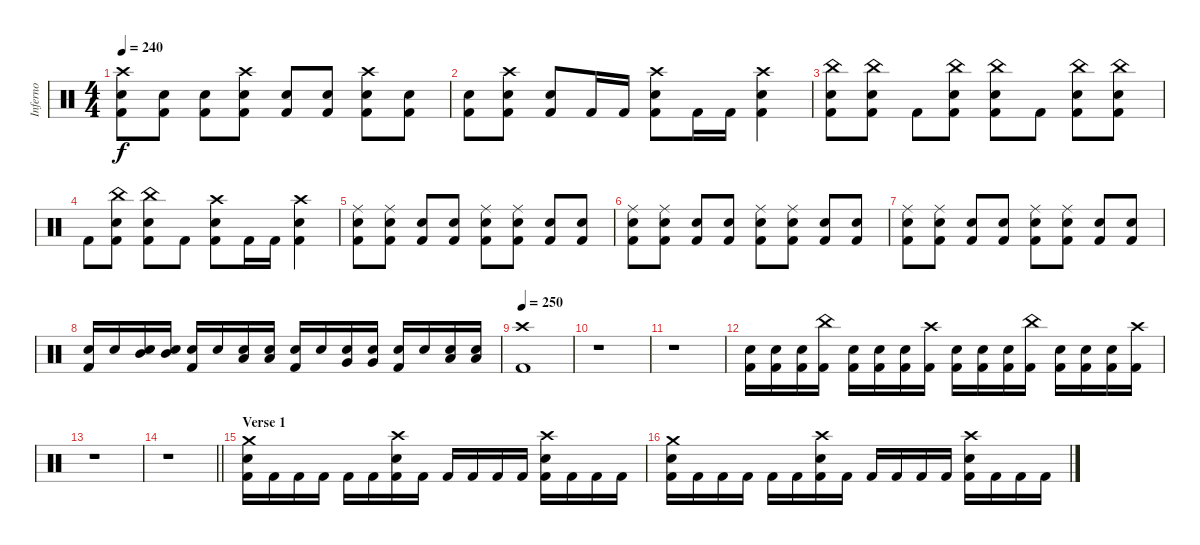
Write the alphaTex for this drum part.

\track ("Inferno" "Inferno") {instrument percussion}
\staff {score}
\articulation defaults
\ts (4 4)
\tempo 240
\clef neutral
\ks c
("Crash high (hit)" "Electric Snare (hit)" "Kick (hit) 2").8{dy f} ("Electric Snare (hit)" "Kick (hit) 2").8 ("Electric Snare (hit)" "Kick (hit) 2").8 ("Crash high (hit)" "Electric Snare (hit)" "Kick (hit) 2").8 ("Electric Snare (hit)" "Kick (hit) 2").8 ("Electric Snare (hit)" "Kick (hit) 2").8 ("Crash high (hit)" "Electric Snare (hit)" "Kick (hit) 2").8 ("Electric Snare (hit)" "Kick (hit) 2").8 |
("Electric Snare (hit)" "Kick (hit) 2").8 ("Crash high (hit)" "Electric Snare (hit)" "Kick (hit) 2").8 ("Electric Snare (hit)" "Kick (hit) 2").8 "Kick (hit) 2".16 "Kick (hit) 2".16 ("Crash high (hit)" "Electric Snare (hit)" "Kick (hit) 2").8 "Kick (hit) 2".16 "Kick (hit) 2".16 ("Crash high (hit)" "Electric Snare (hit)" "Kick (hit) 2").4 |
("China (hit)" "Electric Snare (hit)" "Kick (hit) 2").8 ("China (hit)" "Electric Snare (hit)" "Kick (hit) 2").8 "Kick (hit) 2".8 ("China (hit)" "Electric Snare (hit)" "Kick (hit) 2").8 ("China (hit)" "Electric Snare (hit)" "Kick (hit) 2").8 "Kick (hit) 2".8 ("China (hit)" "Electric Snare (hit)" "Kick (hit) 2").8 ("China (hit)" "Electric Snare (hit)" "Kick (hit) 2").8 |
"Kick (hit) 2".8 ("China (hit)" "Electric Snare (hit)" "Kick (hit) 2").8 ("China (hit)" "Electric Snare (hit)" "Kick (hit) 2").8 "Kick (hit) 2".8 ("Crash high (hit)" "Electric Snare (hit)" "Kick (hit) 2").8 "Kick (hit) 2".16 "Kick (hit) 2".16 ("Crash high (hit)" "Electric Snare (hit)" "Kick (hit) 2").4 |
("Ride (middle)" "Electric Snare (hit)" "Kick (hit) 2").8 ("Ride (middle)" "Electric Snare (hit)" "Kick (hit) 2").8 ("Electric Snare (hit)" "Kick (hit) 2").8 ("Electric Snare (hit)" "Kick (hit) 2").8 ("Ride (middle)" "Electric Snare (hit)" "Kick (hit) 2").8 ("Ride (middle)" "Electric Snare (hit)" "Kick (hit) 2").8 ("Electric Snare (hit)" "Kick (hit) 2").8 ("Electric Snare (hit)" "Kick (hit) 2").8 |
("Ride (middle)" "Electric Snare (hit)" "Kick (hit) 2").8 ("Ride (middle)" "Electric Snare (hit)" "Kick (hit) 2").8 ("Electric Snare (hit)" "Kick (hit) 2").8 ("Electric Snare (hit)" "Kick (hit) 2").8 ("Ride (middle)" "Electric Snare (hit)" "Kick (hit) 2").8 ("Ride (middle)" "Electric Snare (hit)" "Kick (hit) 2").8 ("Electric Snare (hit)" "Kick (hit) 2").8 ("Electric Snare (hit)" "Kick (hit) 2").8 |
("Ride (middle)" "Electric Snare (hit)" "Kick (hit) 2").8 ("Ride (middle)" "Electric Snare (hit)" "Kick (hit) 2").8 ("Electric Snare (hit)" "Kick (hit) 2").8 ("Electric Snare (hit)" "Kick (hit) 2").8 ("Ride (middle)" "Electric Snare (hit)" "Kick (hit) 2").8 ("Ride (middle)" "Electric Snare (hit)" "Kick (hit) 2").8 ("Electric Snare (hit)" "Kick (hit) 2").8 ("Electric Snare (hit)" "Kick (hit) 2").8 |
("Electric Snare (hit)" "Kick (hit) 2").16 "Electric Snare (hit)".16 ("Mid Tom (hit)" "Electric Snare (hit)").16 ("Mid Tom (hit)" "Electric Snare (hit)").16 ("Electric Snare (hit)" "Kick (hit) 2").16 "Electric Snare (hit)".16 ("Low Tom (hit)" "Electric Snare (hit)").16 ("Low Tom (hit)" "Electric Snare (hit)").16 ("Electric Snare (hit)" "Kick (hit) 2").16 "Electric Snare (hit)".16 ("Very Low Tom (hit)" "Electric Snare (hit)").16 ("Very Low Tom (hit)" "Electric Snare (hit)").16 ("Electric Snare (hit)" "Kick (hit) 2").16 "Electric Snare (hit)".16 ("Low Floor Tom (hit)" "Electric Snare (hit)").16 ("Low Floor Tom (hit)" "Electric Snare (hit)").16 |
\tempo 250
("Crash high (hit)" "Kick (hit) 2").1 |
r.1 |
r.1 |
("Electric Snare (hit)" "Kick (hit) 2").16 ("Electric Snare (hit)" "Kick (hit) 2").16 ("Electric Snare (hit)" "Kick (hit) 2").16 ("China (hit)" "Kick (hit) 2").16 ("Electric Snare (hit)" "Kick (hit) 2").16 ("Electric Snare (hit)" "Kick (hit) 2").16 ("Electric Snare (hit)" "Kick (hit) 2").16 ("Crash high (hit)" "Kick (hit) 2").16 ("Electric Snare (hit)" "Kick (hit) 2").16 ("Electric Snare (hit)" "Kick (hit) 2").16 ("Electric Snare (hit)" "Kick (hit) 2").16 ("China (hit)" "Kick (hit) 2").16 ("Electric Snare (hit)" "Kick (hit) 2").16 ("Electric Snare (hit)" "Kick (hit) 2").16 ("Electric Snare (hit)" "Kick (hit) 2").16 ("Crash high (hit)" "Kick (hit) 2").16 |
r.1 |
\barLineRight lightlight
r.1 |
\section ("" "Verse 1")
("Crash medium (hit)" "Electric Snare (hit)" "Kick (hit) 2").16 "Kick (hit) 2".16 "Kick (hit) 2".16 "Kick (hit) 2".16 "Kick (hit) 2".16 "Kick (hit) 2".16 ("Crash high (hit)" "Electric Snare (hit)" "Kick (hit) 2").16 "Kick (hit) 2".16 "Kick (hit) 2".16 "Kick (hit) 2".16 "Kick (hit) 2".16 "Kick (hit) 2".16 ("Crash high (hit)" "Electric Snare (hit)" "Kick (hit) 2").16 "Kick (hit) 2".16 "Kick (hit) 2".16 "Kick (hit) 2".16 |
("Crash medium (hit)" "Electric Snare (hit)" "Kick (hit) 2").16 "Kick (hit) 2".16 "Kick (hit) 2".16 "Kick (hit) 2".16 "Kick (hit) 2".16 "Kick (hit) 2".16 ("Crash high (hit)" "Electric Snare (hit)" "Kick (hit) 2").16 "Kick (hit) 2".16 "Kick (hit) 2".16 "Kick (hit) 2".16 "Kick (hit) 2".16 "Kick (hit) 2".16 ("Crash high (hit)" "Electric Snare (hit)" "Kick (hit) 2").16 "Kick (hit) 2".16 "Kick (hit) 2".16 "Kick (hit) 2".16
